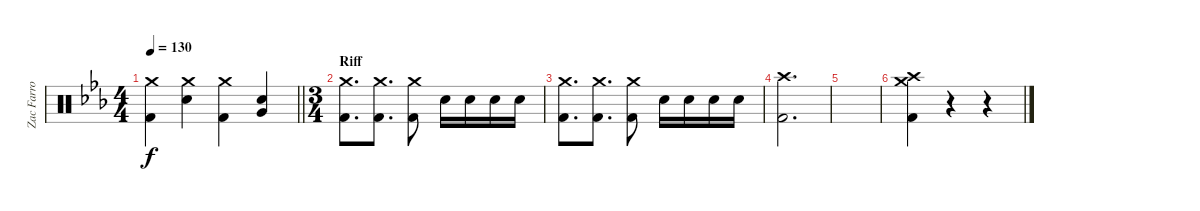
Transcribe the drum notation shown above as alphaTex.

\track ("Zac Farro (Drums)" "Zac Farro ") {instrument percussion}
\staff {score}
\articulation defaults
\ts (4 4)
\tempo 130
\clef neutral
\barLineRight lightlight
\ks eb
("Crash medium (hit)" "Kick (hit) 2").4{dy f} ("Crash medium (hit)" "Electric Snare (hit)").4 ("Crash medium (hit)" "Kick (hit) 2").4 ("Electric Snare (hit)" "Very Low Tom (hit)").4 |
\ts (3 4)
\section ("" "Riff")
("Crash medium (hit)" "Kick (hit) 2").8{d} ("Crash medium (hit)" "Kick (hit) 2").8{d} ("Crash medium (hit)" "Kick (hit) 2").8 "Electric Snare (hit)".16 "Electric Snare (hit)".16 "Electric Snare (hit)".16 "Electric Snare (hit)".16 |
("Crash medium (hit)" "Kick (hit) 2").8{d} ("Crash medium (hit)" "Kick (hit) 2").8{d} ("Crash medium (hit)" "Kick (hit) 2").8 "Electric Snare (hit)".16 "Electric Snare (hit)".16 "Electric Snare (hit)".16 "Electric Snare (hit)".16 |
("Crash high (hit)" "Kick (hit) 2").2{d} |
|
("Crash high (hit)" "Kick (hit) 2" "Crash medium (hit)").4 r.4 r.4
